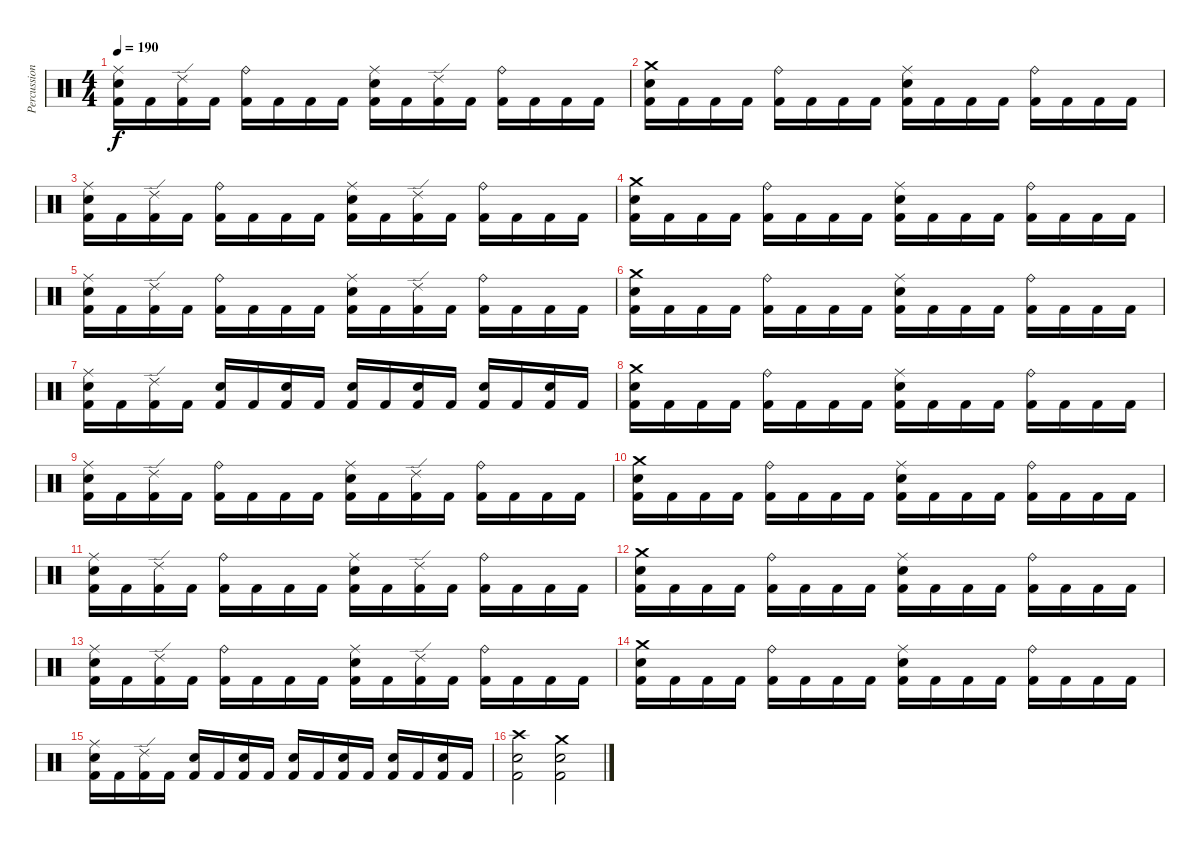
\track ("Percussion" "Percussion") {instrument percussion}
\staff {score}
\articulation defaults
\ts (4 4)
\tempo 190
\clef neutral
\ks c
("Ride (middle)" "Snare (hit) 2" "Kick (hit) 2").16{dy f} "Kick (hit) 2".16 ("Ride (edge) 2" "Kick (hit) 2").16 "Kick (hit) 2".16 ("Ride (bell)" "Kick (hit) 2").16 "Kick (hit) 2".16 "Kick (hit) 2".16 "Kick (hit) 2".16 ("Ride (middle)" "Snare (hit) 2" "Kick (hit) 2").16 "Kick (hit) 2".16 ("Ride (edge) 2" "Kick (hit) 2").16 "Kick (hit) 2".16 ("Ride (bell)" "Kick (hit) 2").16 "Kick (hit) 2".16 "Kick (hit) 2".16 "Kick (hit) 2".16 |
("Crash medium (hit)" "Snare (hit) 2" "Kick (hit) 2").16 "Kick (hit) 2".16 "Kick (hit) 2".16 "Kick (hit) 2".16 ("Ride (bell)" "Kick (hit) 2").16 "Kick (hit) 2".16 "Kick (hit) 2".16 "Kick (hit) 2".16 ("Ride (middle)" "Snare (hit) 2" "Kick (hit) 2").16 "Kick (hit) 2".16 "Kick (hit) 2".16 "Kick (hit) 2".16 ("Ride (bell)" "Kick (hit) 2").16 "Kick (hit) 2".16 "Kick (hit) 2".16 "Kick (hit) 2".16 |
("Ride (middle)" "Snare (hit) 2" "Kick (hit) 2").16 "Kick (hit) 2".16 ("Ride (edge) 2" "Kick (hit) 2").16 "Kick (hit) 2".16 ("Ride (bell)" "Kick (hit) 2").16 "Kick (hit) 2".16 "Kick (hit) 2".16 "Kick (hit) 2".16 ("Ride (middle)" "Snare (hit) 2" "Kick (hit) 2").16 "Kick (hit) 2".16 ("Ride (edge) 2" "Kick (hit) 2").16 "Kick (hit) 2".16 ("Ride (bell)" "Kick (hit) 2").16 "Kick (hit) 2".16 "Kick (hit) 2".16 "Kick (hit) 2".16 |
("Crash medium (hit)" "Snare (hit) 2" "Kick (hit) 2").16 "Kick (hit) 2".16 "Kick (hit) 2".16 "Kick (hit) 2".16 ("Ride (bell)" "Kick (hit) 2").16 "Kick (hit) 2".16 "Kick (hit) 2".16 "Kick (hit) 2".16 ("Ride (middle)" "Snare (hit) 2" "Kick (hit) 2").16 "Kick (hit) 2".16 "Kick (hit) 2".16 "Kick (hit) 2".16 ("Ride (bell)" "Kick (hit) 2").16 "Kick (hit) 2".16 "Kick (hit) 2".16 "Kick (hit) 2".16 |
("Ride (middle)" "Snare (hit) 2" "Kick (hit) 2").16 "Kick (hit) 2".16 ("Ride (edge) 2" "Kick (hit) 2").16 "Kick (hit) 2".16 ("Ride (bell)" "Kick (hit) 2").16 "Kick (hit) 2".16 "Kick (hit) 2".16 "Kick (hit) 2".16 ("Ride (middle)" "Snare (hit) 2" "Kick (hit) 2").16 "Kick (hit) 2".16 ("Ride (edge) 2" "Kick (hit) 2").16 "Kick (hit) 2".16 ("Ride (bell)" "Kick (hit) 2").16 "Kick (hit) 2".16 "Kick (hit) 2".16 "Kick (hit) 2".16 |
("Crash medium (hit)" "Snare (hit) 2" "Kick (hit) 2").16 "Kick (hit) 2".16 "Kick (hit) 2".16 "Kick (hit) 2".16 ("Ride (bell)" "Kick (hit) 2").16 "Kick (hit) 2".16 "Kick (hit) 2".16 "Kick (hit) 2".16 ("Ride (middle)" "Snare (hit) 2" "Kick (hit) 2").16 "Kick (hit) 2".16 "Kick (hit) 2".16 "Kick (hit) 2".16 ("Ride (bell)" "Kick (hit) 2").16 "Kick (hit) 2".16 "Kick (hit) 2".16 "Kick (hit) 2".16 |
("Ride (middle)" "Snare (hit) 2" "Kick (hit) 2").16 "Kick (hit) 2".16 ("Ride (edge) 2" "Kick (hit) 2").16 "Kick (hit) 2".16 ("Snare (hit) 2" "Kick (hit) 2").16 "Kick (hit) 2".16 ("Snare (hit) 2" "Kick (hit) 2").16 "Kick (hit) 2".16 ("Snare (hit) 2" "Kick (hit) 2").16 "Kick (hit) 2".16 ("Snare (hit) 2" "Kick (hit) 2").16 "Kick (hit) 2".16 ("Snare (hit) 2" "Kick (hit) 2").16 "Kick (hit) 2".16 ("Snare (hit) 2" "Kick (hit) 2").16 "Kick (hit) 2".16 |
("Crash medium (hit)" "Snare (hit) 2" "Kick (hit) 2").16 "Kick (hit) 2".16 "Kick (hit) 2".16 "Kick (hit) 2".16 ("Ride (bell)" "Kick (hit) 2").16 "Kick (hit) 2".16 "Kick (hit) 2".16 "Kick (hit) 2".16 ("Ride (middle)" "Snare (hit) 2" "Kick (hit) 2").16 "Kick (hit) 2".16 "Kick (hit) 2".16 "Kick (hit) 2".16 ("Ride (bell)" "Kick (hit) 2").16 "Kick (hit) 2".16 "Kick (hit) 2".16 "Kick (hit) 2".16 |
("Ride (middle)" "Snare (hit) 2" "Kick (hit) 2").16 "Kick (hit) 2".16 ("Ride (edge) 2" "Kick (hit) 2").16 "Kick (hit) 2".16 ("Ride (bell)" "Kick (hit) 2").16 "Kick (hit) 2".16 "Kick (hit) 2".16 "Kick (hit) 2".16 ("Ride (middle)" "Snare (hit) 2" "Kick (hit) 2").16 "Kick (hit) 2".16 ("Ride (edge) 2" "Kick (hit) 2").16 "Kick (hit) 2".16 ("Ride (bell)" "Kick (hit) 2").16 "Kick (hit) 2".16 "Kick (hit) 2".16 "Kick (hit) 2".16 |
("Crash medium (hit)" "Snare (hit) 2" "Kick (hit) 2").16 "Kick (hit) 2".16 "Kick (hit) 2".16 "Kick (hit) 2".16 ("Ride (bell)" "Kick (hit) 2").16 "Kick (hit) 2".16 "Kick (hit) 2".16 "Kick (hit) 2".16 ("Ride (middle)" "Snare (hit) 2" "Kick (hit) 2").16 "Kick (hit) 2".16 "Kick (hit) 2".16 "Kick (hit) 2".16 ("Ride (bell)" "Kick (hit) 2").16 "Kick (hit) 2".16 "Kick (hit) 2".16 "Kick (hit) 2".16 |
("Ride (middle)" "Snare (hit) 2" "Kick (hit) 2").16 "Kick (hit) 2".16 ("Ride (edge) 2" "Kick (hit) 2").16 "Kick (hit) 2".16 ("Ride (bell)" "Kick (hit) 2").16 "Kick (hit) 2".16 "Kick (hit) 2".16 "Kick (hit) 2".16 ("Ride (middle)" "Snare (hit) 2" "Kick (hit) 2").16 "Kick (hit) 2".16 ("Ride (edge) 2" "Kick (hit) 2").16 "Kick (hit) 2".16 ("Ride (bell)" "Kick (hit) 2").16 "Kick (hit) 2".16 "Kick (hit) 2".16 "Kick (hit) 2".16 |
("Crash medium (hit)" "Snare (hit) 2" "Kick (hit) 2").16 "Kick (hit) 2".16 "Kick (hit) 2".16 "Kick (hit) 2".16 ("Ride (bell)" "Kick (hit) 2").16 "Kick (hit) 2".16 "Kick (hit) 2".16 "Kick (hit) 2".16 ("Ride (middle)" "Snare (hit) 2" "Kick (hit) 2").16 "Kick (hit) 2".16 "Kick (hit) 2".16 "Kick (hit) 2".16 ("Ride (bell)" "Kick (hit) 2").16 "Kick (hit) 2".16 "Kick (hit) 2".16 "Kick (hit) 2".16 |
("Ride (middle)" "Snare (hit) 2" "Kick (hit) 2").16 "Kick (hit) 2".16 ("Ride (edge) 2" "Kick (hit) 2").16 "Kick (hit) 2".16 ("Ride (bell)" "Kick (hit) 2").16 "Kick (hit) 2".16 "Kick (hit) 2".16 "Kick (hit) 2".16 ("Ride (middle)" "Snare (hit) 2" "Kick (hit) 2").16 "Kick (hit) 2".16 ("Ride (edge) 2" "Kick (hit) 2").16 "Kick (hit) 2".16 ("Ride (bell)" "Kick (hit) 2").16 "Kick (hit) 2".16 "Kick (hit) 2".16 "Kick (hit) 2".16 |
("Crash medium (hit)" "Snare (hit) 2" "Kick (hit) 2").16 "Kick (hit) 2".16 "Kick (hit) 2".16 "Kick (hit) 2".16 ("Ride (bell)" "Kick (hit) 2").16 "Kick (hit) 2".16 "Kick (hit) 2".16 "Kick (hit) 2".16 ("Ride (middle)" "Snare (hit) 2" "Kick (hit) 2").16 "Kick (hit) 2".16 "Kick (hit) 2".16 "Kick (hit) 2".16 ("Ride (bell)" "Kick (hit) 2").16 "Kick (hit) 2".16 "Kick (hit) 2".16 "Kick (hit) 2".16 |
("Ride (middle)" "Snare (hit) 2" "Kick (hit) 2").16 "Kick (hit) 2".16 ("Ride (edge) 2" "Kick (hit) 2").16 "Kick (hit) 2".16 ("Snare (hit) 2" "Kick (hit) 2").16 "Kick (hit) 2".16 ("Snare (hit) 2" "Kick (hit) 2").16 "Kick (hit) 2".16 ("Snare (hit) 2" "Kick (hit) 2").16 "Kick (hit) 2".16 ("Snare (hit) 2" "Kick (hit) 2").16 "Kick (hit) 2".16 ("Snare (hit) 2" "Kick (hit) 2").16 "Kick (hit) 2".16 ("Snare (hit) 2" "Kick (hit) 2").16 "Kick (hit) 2".16 |
("Crash high (hit)" "Snare (hit) 2" "Kick (hit) 2").2 ("Crash medium (hit)" "Snare (hit) 2" "Kick (hit) 2").2
